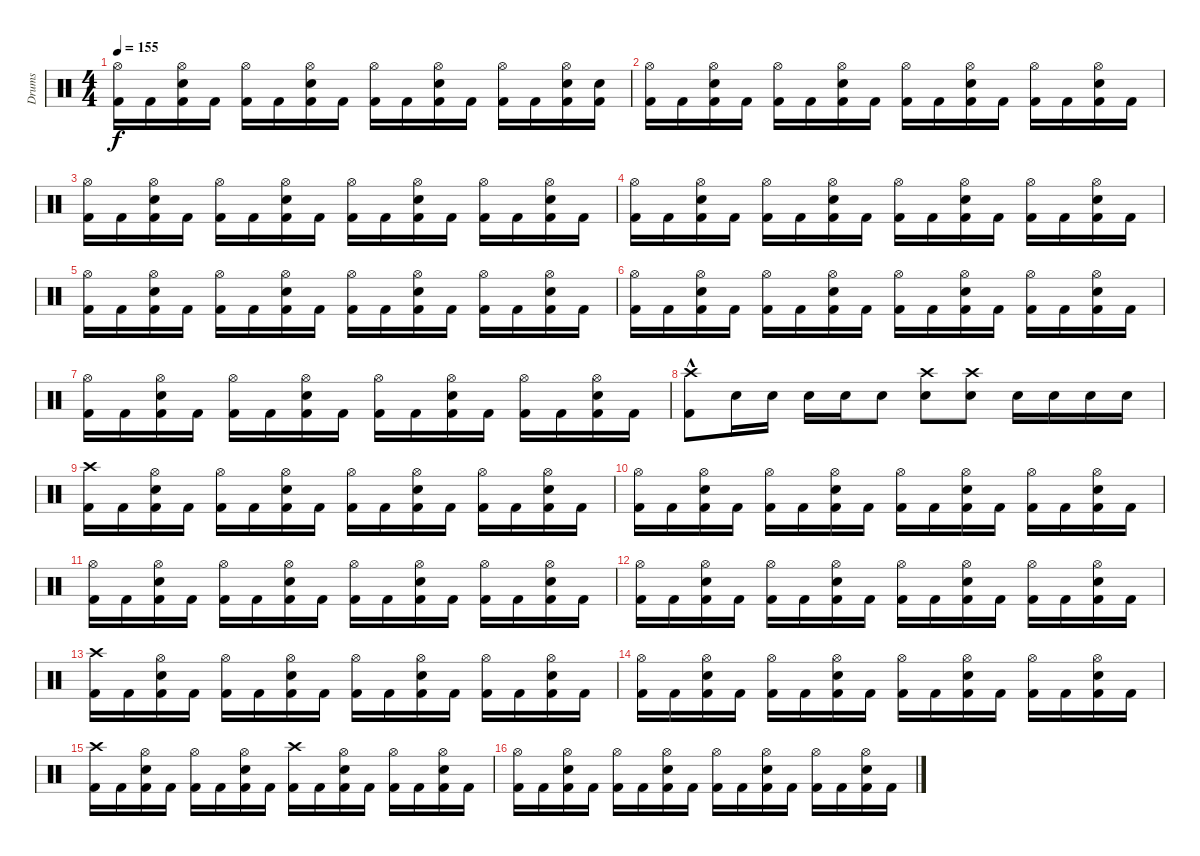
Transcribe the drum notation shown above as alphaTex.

\track ("Drums" "Drums") {instrument percussion}
\staff {score}
\articulation defaults
\ts (4 4)
\tempo 155
\clef neutral
\ks c
("Kick (hit) 2" "Hi-Hat (open)").16{dy f} "Kick (hit) 2".16 ("Kick (hit) 2" "Snare (hit) 2" "Hi-Hat (open)").16 "Kick (hit) 2".16 ("Kick (hit) 2" "Hi-Hat (open)").16 "Kick (hit) 2".16 ("Kick (hit) 2" "Snare (hit) 2" "Hi-Hat (open)").16 "Kick (hit) 2".16 ("Kick (hit) 2" "Hi-Hat (open)").16 "Kick (hit) 2".16 ("Kick (hit) 2" "Snare (hit) 2" "Hi-Hat (open)").16 "Kick (hit) 2".16 ("Kick (hit) 2" "Hi-Hat (open)").16 "Kick (hit) 2".16 ("Kick (hit) 2" "Hi-Hat (open)" "Snare (hit) 2").16 ("Kick (hit) 2" "Snare (hit) 2").16 |
("Kick (hit) 2" "Hi-Hat (open)").16 "Kick (hit) 2".16 ("Kick (hit) 2" "Snare (hit) 2" "Hi-Hat (open)").16 "Kick (hit) 2".16 ("Kick (hit) 2" "Hi-Hat (open)").16 "Kick (hit) 2".16 ("Kick (hit) 2" "Snare (hit) 2" "Hi-Hat (open)").16 "Kick (hit) 2".16 ("Kick (hit) 2" "Hi-Hat (open)").16 "Kick (hit) 2".16 ("Kick (hit) 2" "Snare (hit) 2" "Hi-Hat (open)").16 "Kick (hit) 2".16 ("Kick (hit) 2" "Hi-Hat (open)").16 "Kick (hit) 2".16 ("Kick (hit) 2" "Snare (hit) 2" "Hi-Hat (open)").16 "Kick (hit) 2".16 |
("Kick (hit) 2" "Hi-Hat (open)").16 "Kick (hit) 2".16 ("Kick (hit) 2" "Snare (hit) 2" "Hi-Hat (open)").16 "Kick (hit) 2".16 ("Kick (hit) 2" "Hi-Hat (open)").16 "Kick (hit) 2".16 ("Kick (hit) 2" "Snare (hit) 2" "Hi-Hat (open)").16 "Kick (hit) 2".16 ("Kick (hit) 2" "Hi-Hat (open)").16 "Kick (hit) 2".16 ("Kick (hit) 2" "Snare (hit) 2" "Hi-Hat (open)").16 "Kick (hit) 2".16 ("Kick (hit) 2" "Hi-Hat (open)").16 "Kick (hit) 2".16 ("Kick (hit) 2" "Snare (hit) 2" "Hi-Hat (open)").16 "Kick (hit) 2".16 |
("Kick (hit) 2" "Hi-Hat (open)").16 "Kick (hit) 2".16 ("Kick (hit) 2" "Snare (hit) 2" "Hi-Hat (open)").16 "Kick (hit) 2".16 ("Kick (hit) 2" "Hi-Hat (open)").16 "Kick (hit) 2".16 ("Kick (hit) 2" "Snare (hit) 2" "Hi-Hat (open)").16 "Kick (hit) 2".16 ("Kick (hit) 2" "Hi-Hat (open)").16 "Kick (hit) 2".16 ("Kick (hit) 2" "Snare (hit) 2" "Hi-Hat (open)").16 "Kick (hit) 2".16 ("Kick (hit) 2" "Hi-Hat (open)").16 "Kick (hit) 2".16 ("Kick (hit) 2" "Snare (hit) 2" "Hi-Hat (open)").16 "Kick (hit) 2".16 |
("Kick (hit) 2" "Hi-Hat (open)").16 "Kick (hit) 2".16 ("Kick (hit) 2" "Snare (hit) 2" "Hi-Hat (open)").16 "Kick (hit) 2".16 ("Kick (hit) 2" "Hi-Hat (open)").16 "Kick (hit) 2".16 ("Kick (hit) 2" "Snare (hit) 2" "Hi-Hat (open)").16 "Kick (hit) 2".16 ("Kick (hit) 2" "Hi-Hat (open)").16 "Kick (hit) 2".16 ("Kick (hit) 2" "Snare (hit) 2" "Hi-Hat (open)").16 "Kick (hit) 2".16 ("Kick (hit) 2" "Hi-Hat (open)").16 "Kick (hit) 2".16 ("Kick (hit) 2" "Snare (hit) 2" "Hi-Hat (open)").16 "Kick (hit) 2".16 |
("Kick (hit) 2" "Hi-Hat (open)").16 "Kick (hit) 2".16 ("Kick (hit) 2" "Snare (hit) 2" "Hi-Hat (open)").16 "Kick (hit) 2".16 ("Kick (hit) 2" "Hi-Hat (open)").16 "Kick (hit) 2".16 ("Kick (hit) 2" "Snare (hit) 2" "Hi-Hat (open)").16 "Kick (hit) 2".16 ("Kick (hit) 2" "Hi-Hat (open)").16 "Kick (hit) 2".16 ("Kick (hit) 2" "Snare (hit) 2" "Hi-Hat (open)").16 "Kick (hit) 2".16 ("Kick (hit) 2" "Hi-Hat (open)").16 "Kick (hit) 2".16 ("Kick (hit) 2" "Snare (hit) 2" "Hi-Hat (open)").16 "Kick (hit) 2".16 |
("Kick (hit) 2" "Hi-Hat (open)").16 "Kick (hit) 2".16 ("Kick (hit) 2" "Snare (hit) 2" "Hi-Hat (open)").16 "Kick (hit) 2".16 ("Kick (hit) 2" "Hi-Hat (open)").16 "Kick (hit) 2".16 ("Kick (hit) 2" "Snare (hit) 2" "Hi-Hat (open)").16 "Kick (hit) 2".16 ("Kick (hit) 2" "Hi-Hat (open)").16 "Kick (hit) 2".16 ("Kick (hit) 2" "Snare (hit) 2" "Hi-Hat (open)").16 "Kick (hit) 2".16 ("Kick (hit) 2" "Hi-Hat (open)").16 "Kick (hit) 2".16 ("Kick (hit) 2" "Snare (hit) 2" "Hi-Hat (open)").16 "Kick (hit) 2".16 |
("Kick (hit) 2"{hac} "Crash high (hit)").8 "Snare (hit) 2".16 "Snare (hit) 2".16 "Snare (hit) 2".16 "Snare (hit) 2".16 "Snare (hit) 2".8 ("Snare (hit) 2" "Crash high (hit)").8 ("Snare (hit) 2" "Crash high (hit)").8 "Snare (hit) 2".16 "Snare (hit) 2".16 "Snare (hit) 2".16 "Snare (hit) 2".16 |
("Kick (hit) 2" "Crash high (hit)").16 "Kick (hit) 2".16 ("Kick (hit) 2" "Hi-Hat (open)" "Snare (hit) 2").16 "Kick (hit) 2".16 ("Kick (hit) 2" "Hi-Hat (open)").16 "Kick (hit) 2".16 ("Kick (hit) 2" "Hi-Hat (open)" "Snare (hit) 2").16 "Kick (hit) 2".16 ("Kick (hit) 2" "Hi-Hat (open)").16 "Kick (hit) 2".16 ("Kick (hit) 2" "Hi-Hat (open)" "Snare (hit) 2").16 "Kick (hit) 2".16 ("Kick (hit) 2" "Hi-Hat (open)").16 "Kick (hit) 2".16 ("Kick (hit) 2" "Hi-Hat (open)" "Snare (hit) 2").16 "Kick (hit) 2".16 |
("Kick (hit) 2" "Hi-Hat (open)").16 "Kick (hit) 2".16 ("Kick (hit) 2" "Hi-Hat (open)" "Snare (hit) 2").16 "Kick (hit) 2".16 ("Kick (hit) 2" "Hi-Hat (open)").16 "Kick (hit) 2".16 ("Kick (hit) 2" "Hi-Hat (open)" "Snare (hit) 2").16 "Kick (hit) 2".16 ("Kick (hit) 2" "Hi-Hat (open)").16 "Kick (hit) 2".16 ("Kick (hit) 2" "Hi-Hat (open)" "Snare (hit) 2").16 "Kick (hit) 2".16 ("Kick (hit) 2" "Hi-Hat (open)").16 "Kick (hit) 2".16 ("Kick (hit) 2" "Hi-Hat (open)" "Snare (hit) 2").16 "Kick (hit) 2".16 |
("Kick (hit) 2" "Hi-Hat (open)").16 "Kick (hit) 2".16 ("Kick (hit) 2" "Hi-Hat (open)" "Snare (hit) 2").16 "Kick (hit) 2".16 ("Kick (hit) 2" "Hi-Hat (open)").16 "Kick (hit) 2".16 ("Kick (hit) 2" "Hi-Hat (open)" "Snare (hit) 2").16 "Kick (hit) 2".16 ("Kick (hit) 2" "Hi-Hat (open)").16 "Kick (hit) 2".16 ("Kick (hit) 2" "Hi-Hat (open)" "Snare (hit) 2").16 "Kick (hit) 2".16 ("Kick (hit) 2" "Hi-Hat (open)").16 "Kick (hit) 2".16 ("Kick (hit) 2" "Hi-Hat (open)" "Snare (hit) 2").16 "Kick (hit) 2".16 |
("Kick (hit) 2" "Hi-Hat (open)").16 "Kick (hit) 2".16 ("Kick (hit) 2" "Hi-Hat (open)" "Snare (hit) 2").16 "Kick (hit) 2".16 ("Kick (hit) 2" "Hi-Hat (open)").16 "Kick (hit) 2".16 ("Kick (hit) 2" "Hi-Hat (open)" "Snare (hit) 2").16 "Kick (hit) 2".16 ("Kick (hit) 2" "Hi-Hat (open)").16 "Kick (hit) 2".16 ("Kick (hit) 2" "Hi-Hat (open)" "Snare (hit) 2").16 "Kick (hit) 2".16 ("Kick (hit) 2" "Hi-Hat (open)").16 "Kick (hit) 2".16 ("Kick (hit) 2" "Hi-Hat (open)" "Snare (hit) 2").16 "Kick (hit) 2".16 |
("Kick (hit) 2" "Crash high (hit)").16 "Kick (hit) 2".16 ("Kick (hit) 2" "Hi-Hat (open)" "Snare (hit) 2").16 "Kick (hit) 2".16 ("Kick (hit) 2" "Hi-Hat (open)").16 "Kick (hit) 2".16 ("Kick (hit) 2" "Hi-Hat (open)" "Snare (hit) 2").16 "Kick (hit) 2".16 ("Kick (hit) 2" "Hi-Hat (open)").16 "Kick (hit) 2".16 ("Kick (hit) 2" "Hi-Hat (open)" "Snare (hit) 2").16 "Kick (hit) 2".16 ("Kick (hit) 2" "Hi-Hat (open)").16 "Kick (hit) 2".16 ("Kick (hit) 2" "Hi-Hat (open)" "Snare (hit) 2").16 "Kick (hit) 2".16 |
("Kick (hit) 2" "Hi-Hat (open)").16 "Kick (hit) 2".16 ("Kick (hit) 2" "Hi-Hat (open)" "Snare (hit) 2").16 "Kick (hit) 2".16 ("Kick (hit) 2" "Hi-Hat (open)").16 "Kick (hit) 2".16 ("Kick (hit) 2" "Hi-Hat (open)" "Snare (hit) 2").16 "Kick (hit) 2".16 ("Kick (hit) 2" "Hi-Hat (open)").16 "Kick (hit) 2".16 ("Kick (hit) 2" "Hi-Hat (open)" "Snare (hit) 2").16 "Kick (hit) 2".16 ("Kick (hit) 2" "Hi-Hat (open)").16 "Kick (hit) 2".16 ("Kick (hit) 2" "Hi-Hat (open)" "Snare (hit) 2").16 "Kick (hit) 2".16 |
("Kick (hit) 2" "Crash high (hit)").16 "Kick (hit) 2".16 ("Kick (hit) 2" "Hi-Hat (open)" "Snare (hit) 2").16 "Kick (hit) 2".16 ("Kick (hit) 2" "Hi-Hat (open)").16 "Kick (hit) 2".16 ("Kick (hit) 2" "Hi-Hat (open)" "Snare (hit) 2").16 "Kick (hit) 2".16 ("Kick (hit) 2" "Crash high (hit)").16 "Kick (hit) 2".16 ("Kick (hit) 2" "Hi-Hat (open)" "Snare (hit) 2").16 "Kick (hit) 2".16 ("Kick (hit) 2" "Hi-Hat (open)").16 "Kick (hit) 2".16 ("Kick (hit) 2" "Hi-Hat (open)" "Snare (hit) 2").16 "Kick (hit) 2".16 |
("Kick (hit) 2" "Hi-Hat (open)").16 "Kick (hit) 2".16 ("Kick (hit) 2" "Hi-Hat (open)" "Snare (hit) 2").16 "Kick (hit) 2".16 ("Kick (hit) 2" "Hi-Hat (open)").16 "Kick (hit) 2".16 ("Kick (hit) 2" "Hi-Hat (open)" "Snare (hit) 2").16 "Kick (hit) 2".16 ("Kick (hit) 2" "Hi-Hat (open)").16 "Kick (hit) 2".16 ("Kick (hit) 2" "Hi-Hat (open)" "Snare (hit) 2").16 "Kick (hit) 2".16 ("Kick (hit) 2" "Hi-Hat (open)").16 "Kick (hit) 2".16 ("Kick (hit) 2" "Hi-Hat (open)" "Snare (hit) 2").16 "Kick (hit) 2".16
